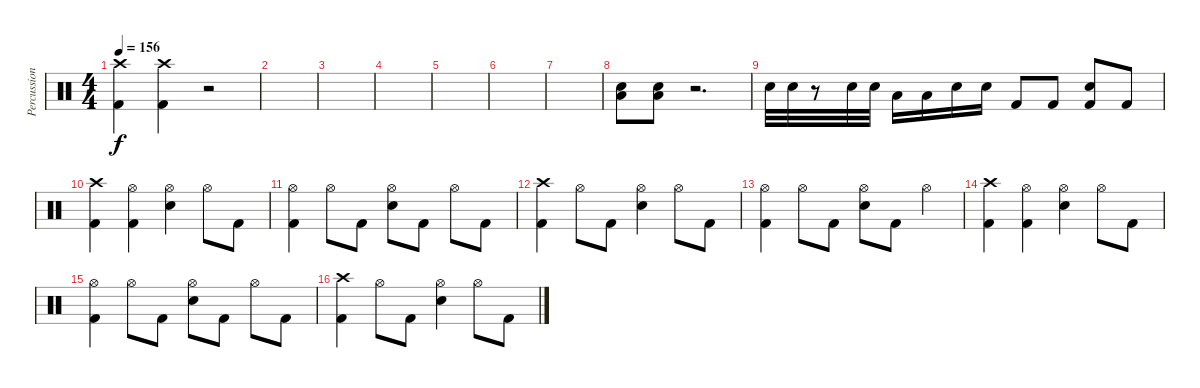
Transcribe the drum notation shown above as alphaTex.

\track ("Percussions" "Percussion") {instrument percussion}
\staff {score}
\articulation defaults
\ts (4 4)
\tempo 156
\clef neutral
\ks c
("Crash high (hit)" "Kick (hit) 2").4{dy f} ("Crash high (hit)" "Kick (hit) 2").4 r.2 |
|
|
|
|
|
|
("Low Floor Tom (hit)" "Electric Snare (hit)").8 ("Low Floor Tom (hit)" "Electric Snare (hit)").8 r.2{d} |
"Electric Snare (hit)".32 "Electric Snare (hit)".32 r.8 "Electric Snare (hit)".32 "Electric Snare (hit)".32 "Low Tom (hit)".16 "Low Tom (hit)".16 "Electric Snare (hit)".16 "Electric Snare (hit)".16 "Kick (hit) 2".8 "Kick (hit) 2".8 ("Electric Snare (hit)" "Kick (hit) 2").8 "Kick (hit) 2".8 |
("Crash high (hit)" "Kick (hit) 2").4 ("Hi-Hat (open)" "Kick (hit) 2").4 ("Hi-Hat (open)" "Electric Snare (hit)").4 "Hi-Hat (open)".8 "Kick (hit) 2".8 |
("Hi-Hat (open)" "Kick (hit) 2").4 "Hi-Hat (open)".8 "Kick (hit) 2".8 ("Hi-Hat (open)" "Electric Snare (hit)").8 "Kick (hit) 2".8 "Hi-Hat (open)".8 "Kick (hit) 2".8 |
("Crash high (hit)" "Kick (hit) 2").4 "Hi-Hat (open)".8 "Kick (hit) 2".8 ("Hi-Hat (open)" "Electric Snare (hit)").4 "Hi-Hat (open)".8 "Kick (hit) 2".8 |
("Hi-Hat (open)" "Kick (hit) 2").4 "Hi-Hat (open)".8 "Kick (hit) 2".8 ("Hi-Hat (open)" "Electric Snare (hit)").8 "Kick (hit) 2".8 "Hi-Hat (open)".4 |
("Crash high (hit)" "Kick (hit) 2").4 ("Hi-Hat (open)" "Kick (hit) 2").4 ("Hi-Hat (open)" "Electric Snare (hit)").4 "Hi-Hat (open)".8 "Kick (hit) 2".8 |
("Hi-Hat (open)" "Kick (hit) 2").4 "Hi-Hat (open)".8 "Kick (hit) 2".8 ("Hi-Hat (open)" "Electric Snare (hit)").8 "Kick (hit) 2".8 "Hi-Hat (open)".8 "Kick (hit) 2".8 |
("Crash high (hit)" "Kick (hit) 2").4 "Hi-Hat (open)".8 "Kick (hit) 2".8 ("Hi-Hat (open)" "Electric Snare (hit)").4 "Hi-Hat (open)".8 "Kick (hit) 2".8
